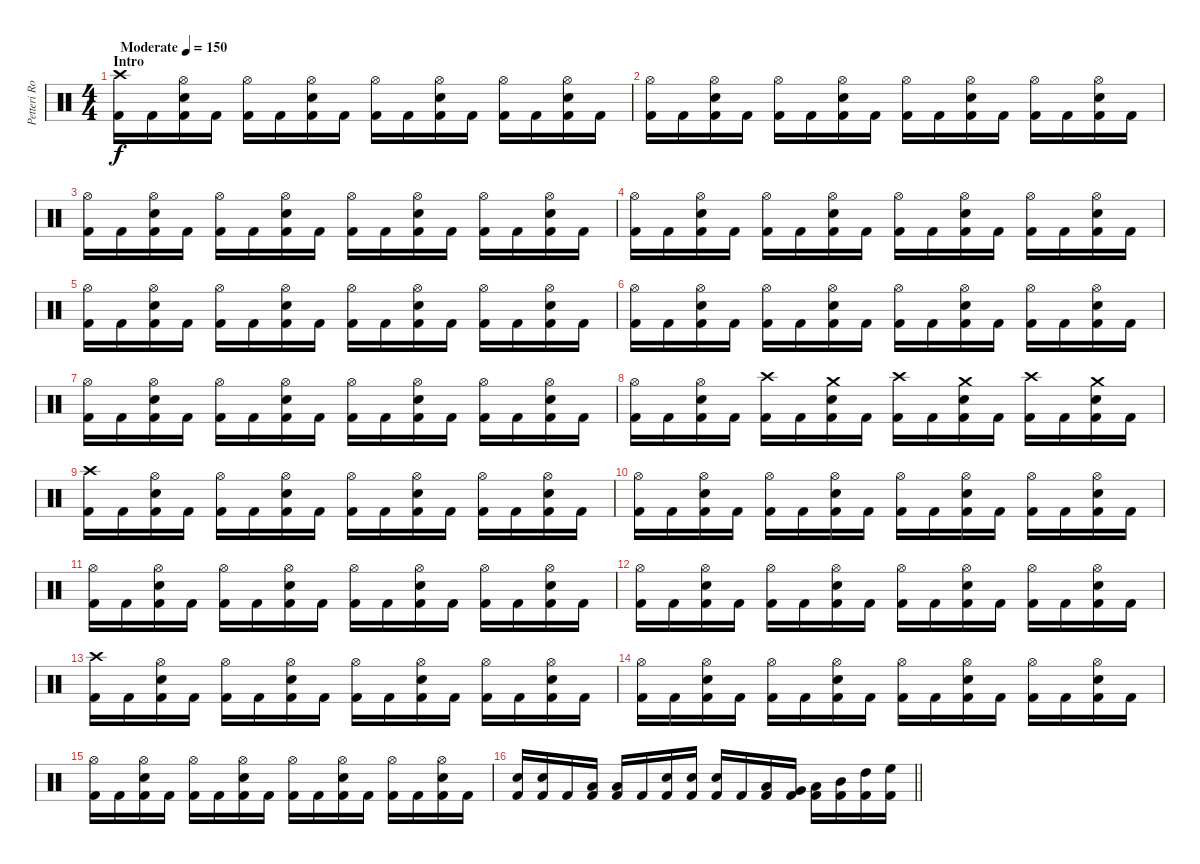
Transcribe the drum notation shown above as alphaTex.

\track ("Petteri Rosenbom" "Petteri Ro") {instrument percussion}
\staff {score}
\articulation defaults
\ts (4 4)
\section ("" "Intro")
\tempo (150 "Moderate")
\clef neutral
\ks c
("Crash high (hit)" "Kick (hit) 2").16{dy f} "Kick (hit) 2".16 ("Hi-Hat (open)" "Electric Snare (hit)" "Kick (hit) 2").16 "Kick (hit) 2".16 ("Hi-Hat (open)" "Kick (hit) 2").16 "Kick (hit) 2".16 ("Hi-Hat (open)" "Electric Snare (hit)" "Kick (hit) 2").16 "Kick (hit) 2".16 ("Hi-Hat (open)" "Kick (hit) 2").16 "Kick (hit) 2".16 ("Hi-Hat (open)" "Electric Snare (hit)" "Kick (hit) 2").16 "Kick (hit) 2".16 ("Hi-Hat (open)" "Kick (hit) 2").16 "Kick (hit) 2".16 ("Hi-Hat (open)" "Electric Snare (hit)" "Kick (hit) 2").16 "Kick (hit) 2".16 |
("Hi-Hat (open)" "Kick (hit) 2").16 "Kick (hit) 2".16 ("Hi-Hat (open)" "Electric Snare (hit)" "Kick (hit) 2").16 "Kick (hit) 2".16 ("Hi-Hat (open)" "Kick (hit) 2").16 "Kick (hit) 2".16 ("Hi-Hat (open)" "Electric Snare (hit)" "Kick (hit) 2").16 "Kick (hit) 2".16 ("Hi-Hat (open)" "Kick (hit) 2").16 "Kick (hit) 2".16 ("Hi-Hat (open)" "Electric Snare (hit)" "Kick (hit) 2").16 "Kick (hit) 2".16 ("Hi-Hat (open)" "Kick (hit) 2").16 "Kick (hit) 2".16 ("Hi-Hat (open)" "Electric Snare (hit)" "Kick (hit) 2").16 "Kick (hit) 2".16 |
("Hi-Hat (open)" "Kick (hit) 2").16 "Kick (hit) 2".16 ("Hi-Hat (open)" "Electric Snare (hit)" "Kick (hit) 2").16 "Kick (hit) 2".16 ("Hi-Hat (open)" "Kick (hit) 2").16 "Kick (hit) 2".16 ("Hi-Hat (open)" "Electric Snare (hit)" "Kick (hit) 2").16 "Kick (hit) 2".16 ("Hi-Hat (open)" "Kick (hit) 2").16 "Kick (hit) 2".16 ("Hi-Hat (open)" "Electric Snare (hit)" "Kick (hit) 2").16 "Kick (hit) 2".16 ("Hi-Hat (open)" "Kick (hit) 2").16 "Kick (hit) 2".16 ("Hi-Hat (open)" "Electric Snare (hit)" "Kick (hit) 2").16 "Kick (hit) 2".16 |
("Hi-Hat (open)" "Kick (hit) 2").16 "Kick (hit) 2".16 ("Hi-Hat (open)" "Electric Snare (hit)" "Kick (hit) 2").16 "Kick (hit) 2".16 ("Hi-Hat (open)" "Kick (hit) 2").16 "Kick (hit) 2".16 ("Hi-Hat (open)" "Electric Snare (hit)" "Kick (hit) 2").16 "Kick (hit) 2".16 ("Hi-Hat (open)" "Kick (hit) 2").16 "Kick (hit) 2".16 ("Hi-Hat (open)" "Electric Snare (hit)" "Kick (hit) 2").16 "Kick (hit) 2".16 ("Hi-Hat (open)" "Kick (hit) 2").16 "Kick (hit) 2".16 ("Hi-Hat (open)" "Electric Snare (hit)" "Kick (hit) 2").16 "Kick (hit) 2".16 |
("Hi-Hat (open)" "Kick (hit) 2").16 "Kick (hit) 2".16 ("Hi-Hat (open)" "Electric Snare (hit)" "Kick (hit) 2").16 "Kick (hit) 2".16 ("Hi-Hat (open)" "Kick (hit) 2").16 "Kick (hit) 2".16 ("Hi-Hat (open)" "Electric Snare (hit)" "Kick (hit) 2").16 "Kick (hit) 2".16 ("Hi-Hat (open)" "Kick (hit) 2").16 "Kick (hit) 2".16 ("Hi-Hat (open)" "Electric Snare (hit)" "Kick (hit) 2").16 "Kick (hit) 2".16 ("Hi-Hat (open)" "Kick (hit) 2").16 "Kick (hit) 2".16 ("Hi-Hat (open)" "Electric Snare (hit)" "Kick (hit) 2").16 "Kick (hit) 2".16 |
("Hi-Hat (open)" "Kick (hit) 2").16 "Kick (hit) 2".16 ("Hi-Hat (open)" "Electric Snare (hit)" "Kick (hit) 2").16 "Kick (hit) 2".16 ("Hi-Hat (open)" "Kick (hit) 2").16 "Kick (hit) 2".16 ("Hi-Hat (open)" "Electric Snare (hit)" "Kick (hit) 2").16 "Kick (hit) 2".16 ("Hi-Hat (open)" "Kick (hit) 2").16 "Kick (hit) 2".16 ("Hi-Hat (open)" "Electric Snare (hit)" "Kick (hit) 2").16 "Kick (hit) 2".16 ("Hi-Hat (open)" "Kick (hit) 2").16 "Kick (hit) 2".16 ("Hi-Hat (open)" "Electric Snare (hit)" "Kick (hit) 2").16 "Kick (hit) 2".16 |
("Hi-Hat (open)" "Kick (hit) 2").16 "Kick (hit) 2".16 ("Hi-Hat (open)" "Electric Snare (hit)" "Kick (hit) 2").16 "Kick (hit) 2".16 ("Hi-Hat (open)" "Kick (hit) 2").16 "Kick (hit) 2".16 ("Hi-Hat (open)" "Electric Snare (hit)" "Kick (hit) 2").16 "Kick (hit) 2".16 ("Hi-Hat (open)" "Kick (hit) 2").16 "Kick (hit) 2".16 ("Hi-Hat (open)" "Electric Snare (hit)" "Kick (hit) 2").16 "Kick (hit) 2".16 ("Hi-Hat (open)" "Kick (hit) 2").16 "Kick (hit) 2".16 ("Hi-Hat (open)" "Electric Snare (hit)" "Kick (hit) 2").16 "Kick (hit) 2".16 |
("Hi-Hat (open)" "Kick (hit) 2").16 "Kick (hit) 2".16 ("Hi-Hat (open)" "Electric Snare (hit)" "Kick (hit) 2").16 "Kick (hit) 2".16 ("Crash high (hit)" "Kick (hit) 2").16 "Kick (hit) 2".16 ("Crash medium (hit)" "Electric Snare (hit)" "Kick (hit) 2").16 "Kick (hit) 2".16 ("Crash high (hit)" "Kick (hit) 2").16 "Kick (hit) 2".16 ("Crash medium (hit)" "Electric Snare (hit)" "Kick (hit) 2").16 "Kick (hit) 2".16 ("Crash high (hit)" "Kick (hit) 2").16 "Kick (hit) 2".16 ("Crash medium (hit)" "Electric Snare (hit)" "Kick (hit) 2").16 "Kick (hit) 2".16 |
("Crash high (hit)" "Kick (hit) 2").16 "Kick (hit) 2".16 ("Hi-Hat (open)" "Electric Snare (hit)" "Kick (hit) 2").16 "Kick (hit) 2".16 ("Hi-Hat (open)" "Kick (hit) 2").16 "Kick (hit) 2".16 ("Hi-Hat (open)" "Electric Snare (hit)" "Kick (hit) 2").16 "Kick (hit) 2".16 ("Hi-Hat (open)" "Kick (hit) 2").16 "Kick (hit) 2".16 ("Hi-Hat (open)" "Electric Snare (hit)" "Kick (hit) 2").16 "Kick (hit) 2".16 ("Hi-Hat (open)" "Kick (hit) 2").16 "Kick (hit) 2".16 ("Hi-Hat (open)" "Electric Snare (hit)" "Kick (hit) 2").16 "Kick (hit) 2".16 |
("Hi-Hat (open)" "Kick (hit) 2").16 "Kick (hit) 2".16 ("Hi-Hat (open)" "Electric Snare (hit)" "Kick (hit) 2").16 "Kick (hit) 2".16 ("Hi-Hat (open)" "Kick (hit) 2").16 "Kick (hit) 2".16 ("Hi-Hat (open)" "Electric Snare (hit)" "Kick (hit) 2").16 "Kick (hit) 2".16 ("Hi-Hat (open)" "Kick (hit) 2").16 "Kick (hit) 2".16 ("Hi-Hat (open)" "Electric Snare (hit)" "Kick (hit) 2").16 "Kick (hit) 2".16 ("Hi-Hat (open)" "Kick (hit) 2").16 "Kick (hit) 2".16 ("Hi-Hat (open)" "Electric Snare (hit)" "Kick (hit) 2").16 "Kick (hit) 2".16 |
("Hi-Hat (open)" "Kick (hit) 2").16 "Kick (hit) 2".16 ("Hi-Hat (open)" "Electric Snare (hit)" "Kick (hit) 2").16 "Kick (hit) 2".16 ("Hi-Hat (open)" "Kick (hit) 2").16 "Kick (hit) 2".16 ("Hi-Hat (open)" "Electric Snare (hit)" "Kick (hit) 2").16 "Kick (hit) 2".16 ("Hi-Hat (open)" "Kick (hit) 2").16 "Kick (hit) 2".16 ("Hi-Hat (open)" "Electric Snare (hit)" "Kick (hit) 2").16 "Kick (hit) 2".16 ("Hi-Hat (open)" "Kick (hit) 2").16 "Kick (hit) 2".16 ("Hi-Hat (open)" "Electric Snare (hit)" "Kick (hit) 2").16 "Kick (hit) 2".16 |
("Hi-Hat (open)" "Kick (hit) 2").16 "Kick (hit) 2".16 ("Hi-Hat (open)" "Electric Snare (hit)" "Kick (hit) 2").16 "Kick (hit) 2".16 ("Hi-Hat (open)" "Kick (hit) 2").16 "Kick (hit) 2".16 ("Hi-Hat (open)" "Electric Snare (hit)" "Kick (hit) 2").16 "Kick (hit) 2".16 ("Hi-Hat (open)" "Kick (hit) 2").16 "Kick (hit) 2".16 ("Hi-Hat (open)" "Electric Snare (hit)" "Kick (hit) 2").16 "Kick (hit) 2".16 ("Hi-Hat (open)" "Kick (hit) 2").16 "Kick (hit) 2".16 ("Hi-Hat (open)" "Electric Snare (hit)" "Kick (hit) 2").16 "Kick (hit) 2".16 |
("Crash high (hit)" "Kick (hit) 2").16 "Kick (hit) 2".16 ("Hi-Hat (open)" "Electric Snare (hit)" "Kick (hit) 2").16 "Kick (hit) 2".16 ("Hi-Hat (open)" "Kick (hit) 2").16 "Kick (hit) 2".16 ("Hi-Hat (open)" "Electric Snare (hit)" "Kick (hit) 2").16 "Kick (hit) 2".16 ("Hi-Hat (open)" "Kick (hit) 2").16 "Kick (hit) 2".16 ("Hi-Hat (open)" "Electric Snare (hit)" "Kick (hit) 2").16 "Kick (hit) 2".16 ("Hi-Hat (open)" "Kick (hit) 2").16 "Kick (hit) 2".16 ("Hi-Hat (open)" "Electric Snare (hit)" "Kick (hit) 2").16 "Kick (hit) 2".16 |
("Hi-Hat (open)" "Kick (hit) 2").16 "Kick (hit) 2".16 ("Hi-Hat (open)" "Electric Snare (hit)" "Kick (hit) 2").16 "Kick (hit) 2".16 ("Hi-Hat (open)" "Kick (hit) 2").16 "Kick (hit) 2".16 ("Hi-Hat (open)" "Electric Snare (hit)" "Kick (hit) 2").16 "Kick (hit) 2".16 ("Hi-Hat (open)" "Kick (hit) 2").16 "Kick (hit) 2".16 ("Hi-Hat (open)" "Electric Snare (hit)" "Kick (hit) 2").16 "Kick (hit) 2".16 ("Hi-Hat (open)" "Kick (hit) 2").16 "Kick (hit) 2".16 ("Hi-Hat (open)" "Electric Snare (hit)" "Kick (hit) 2").16 "Kick (hit) 2".16 |
("Hi-Hat (open)" "Kick (hit) 2").16 "Kick (hit) 2".16 ("Hi-Hat (open)" "Electric Snare (hit)" "Kick (hit) 2").16 "Kick (hit) 2".16 ("Hi-Hat (open)" "Kick (hit) 2").16 "Kick (hit) 2".16 ("Hi-Hat (open)" "Electric Snare (hit)" "Kick (hit) 2").16 "Kick (hit) 2".16 ("Hi-Hat (open)" "Kick (hit) 2").16 "Kick (hit) 2".16 ("Hi-Hat (open)" "Electric Snare (hit)" "Kick (hit) 2").16 "Kick (hit) 2".16 ("Hi-Hat (open)" "Kick (hit) 2").16 "Kick (hit) 2".16 ("Hi-Hat (open)" "Electric Snare (hit)" "Kick (hit) 2").16 "Kick (hit) 2".16 |
\barLineRight lightlight
("Electric Snare (hit)" "Kick (hit) 2").16 ("Electric Snare (hit)" "Kick (hit) 2").16 "Kick (hit) 2".16 ("Low Floor Tom (hit)" "Kick (hit) 2").16 ("Low Floor Tom (hit)" "Kick (hit) 2").16 "Kick (hit) 2".16 ("Electric Snare (hit)" "Kick (hit) 2").16 ("Electric Snare (hit)" "Kick (hit) 2").16 ("Electric Snare (hit)" "Kick (hit) 2").16 "Kick (hit) 2".16 ("Low Floor Tom (hit)" "Kick (hit) 2").16 ("Very Low Tom (hit)" "Kick (hit) 2").16 ("Low Tom (hit)" "Kick (hit) 2").16 ("Mid Tom (hit)" "Kick (hit) 2").16 ("High Tom (hit)" "Kick (hit) 2").16 ("High Floor Tom (hit)" "Kick (hit) 2").16
